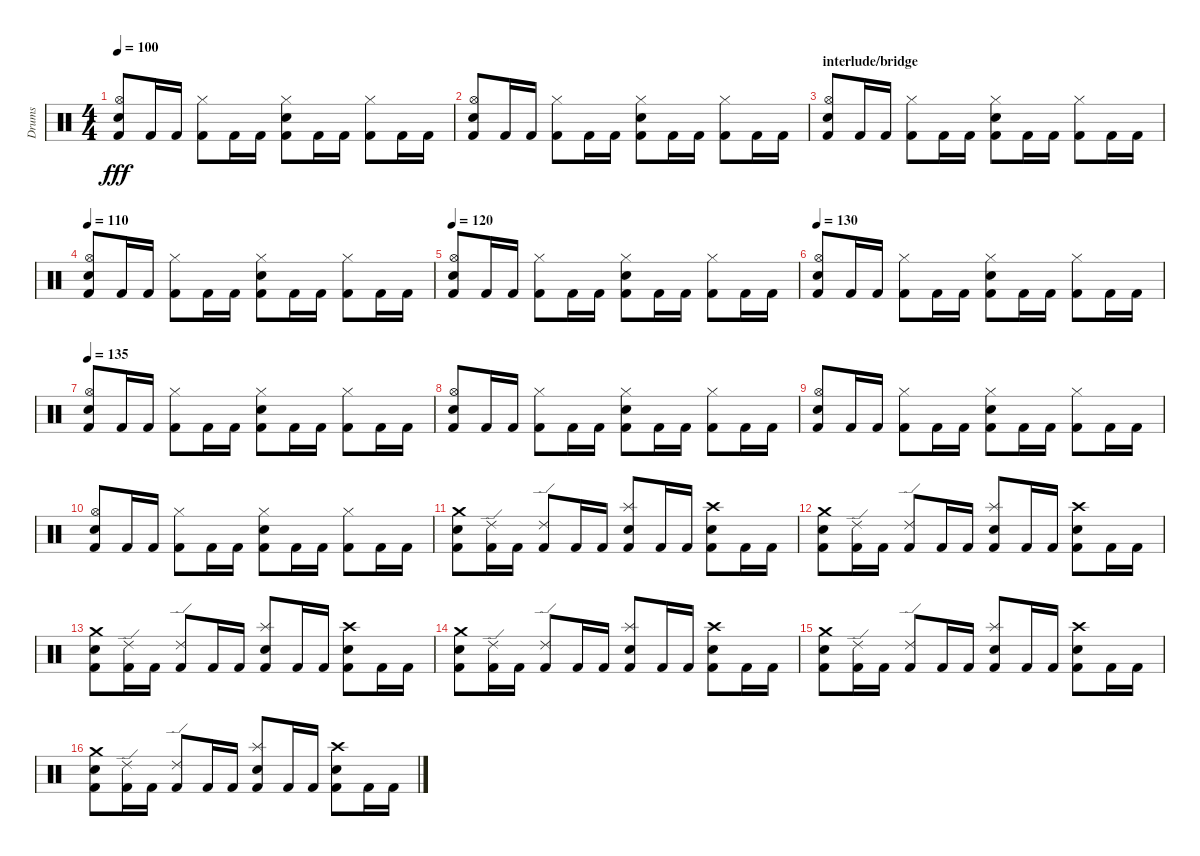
\track ("Drums" "Drums") {instrument percussion}
\staff {score}
\articulation defaults
\ts (4 4)
\tempo 100
\clef neutral
\ks c
("Electric Snare (hit)" "Hi-Hat (open)" "Kick (hit) 2").8{dy fff} "Kick (hit) 2".16 "Kick (hit) 2".16 ("Hi-Hat (closed)" "Kick (hit) 2").8 "Kick (hit) 2".16 "Kick (hit) 2".16 ("Hi-Hat (closed)" "Electric Snare (hit)" "Kick (hit) 2").8 "Kick (hit) 2".16 "Kick (hit) 2".16 ("Hi-Hat (closed)" "Kick (hit) 2").8 "Kick (hit) 2".16 "Kick (hit) 2".16 |
("Electric Snare (hit)" "Hi-Hat (open)" "Kick (hit) 2").8 "Kick (hit) 2".16 "Kick (hit) 2".16 ("Hi-Hat (closed)" "Kick (hit) 2").8 "Kick (hit) 2".16 "Kick (hit) 2".16 ("Hi-Hat (closed)" "Electric Snare (hit)" "Kick (hit) 2").8 "Kick (hit) 2".16 "Kick (hit) 2".16 ("Hi-Hat (closed)" "Kick (hit) 2").8 "Kick (hit) 2".16 "Kick (hit) 2".16 |
\section ("" "interlude/bridge")
("Electric Snare (hit)" "Hi-Hat (open)" "Kick (hit) 2").8 "Kick (hit) 2".16 "Kick (hit) 2".16 ("Hi-Hat (closed)" "Kick (hit) 2").8 "Kick (hit) 2".16 "Kick (hit) 2".16 ("Hi-Hat (closed)" "Electric Snare (hit)" "Kick (hit) 2").8 "Kick (hit) 2".16 "Kick (hit) 2".16 ("Hi-Hat (closed)" "Kick (hit) 2").8 "Kick (hit) 2".16 "Kick (hit) 2".16 |
\tempo 110
("Electric Snare (hit)" "Hi-Hat (open)" "Kick (hit) 2").8 "Kick (hit) 2".16 "Kick (hit) 2".16 ("Hi-Hat (closed)" "Kick (hit) 2").8 "Kick (hit) 2".16 "Kick (hit) 2".16 ("Hi-Hat (closed)" "Electric Snare (hit)" "Kick (hit) 2").8 "Kick (hit) 2".16 "Kick (hit) 2".16 ("Hi-Hat (closed)" "Kick (hit) 2").8 "Kick (hit) 2".16 "Kick (hit) 2".16 |
\tempo 120
("Electric Snare (hit)" "Hi-Hat (open)" "Kick (hit) 2").8 "Kick (hit) 2".16 "Kick (hit) 2".16 ("Hi-Hat (closed)" "Kick (hit) 2").8 "Kick (hit) 2".16 "Kick (hit) 2".16 ("Hi-Hat (closed)" "Electric Snare (hit)" "Kick (hit) 2").8 "Kick (hit) 2".16 "Kick (hit) 2".16 ("Hi-Hat (closed)" "Kick (hit) 2").8 "Kick (hit) 2".16 "Kick (hit) 2".16 |
\tempo 130
("Electric Snare (hit)" "Hi-Hat (open)" "Kick (hit) 2").8 "Kick (hit) 2".16 "Kick (hit) 2".16 ("Hi-Hat (closed)" "Kick (hit) 2").8 "Kick (hit) 2".16 "Kick (hit) 2".16 ("Hi-Hat (closed)" "Electric Snare (hit)" "Kick (hit) 2").8 "Kick (hit) 2".16 "Kick (hit) 2".16 ("Hi-Hat (closed)" "Kick (hit) 2").8 "Kick (hit) 2".16 "Kick (hit) 2".16 |
\tempo 135
("Electric Snare (hit)" "Hi-Hat (open)" "Kick (hit) 2").8 "Kick (hit) 2".16 "Kick (hit) 2".16 ("Hi-Hat (closed)" "Kick (hit) 2").8 "Kick (hit) 2".16 "Kick (hit) 2".16 ("Hi-Hat (closed)" "Electric Snare (hit)" "Kick (hit) 2").8 "Kick (hit) 2".16 "Kick (hit) 2".16 ("Hi-Hat (closed)" "Kick (hit) 2").8 "Kick (hit) 2".16 "Kick (hit) 2".16 |
("Electric Snare (hit)" "Hi-Hat (open)" "Kick (hit) 2").8 "Kick (hit) 2".16 "Kick (hit) 2".16 ("Hi-Hat (closed)" "Kick (hit) 2").8 "Kick (hit) 2".16 "Kick (hit) 2".16 ("Hi-Hat (closed)" "Electric Snare (hit)" "Kick (hit) 2").8 "Kick (hit) 2".16 "Kick (hit) 2".16 ("Hi-Hat (closed)" "Kick (hit) 2").8 "Kick (hit) 2".16 "Kick (hit) 2".16 |
("Electric Snare (hit)" "Hi-Hat (open)" "Kick (hit) 2").8 "Kick (hit) 2".16 "Kick (hit) 2".16 ("Hi-Hat (closed)" "Kick (hit) 2").8 "Kick (hit) 2".16 "Kick (hit) 2".16 ("Hi-Hat (closed)" "Electric Snare (hit)" "Kick (hit) 2").8 "Kick (hit) 2".16 "Kick (hit) 2".16 ("Hi-Hat (closed)" "Kick (hit) 2").8 "Kick (hit) 2".16 "Kick (hit) 2".16 |
("Electric Snare (hit)" "Hi-Hat (open)" "Kick (hit) 2").8 "Kick (hit) 2".16 "Kick (hit) 2".16 ("Hi-Hat (closed)" "Kick (hit) 2").8 "Kick (hit) 2".16 "Kick (hit) 2".16 ("Hi-Hat (closed)" "Electric Snare (hit)" "Kick (hit) 2").8 "Kick (hit) 2".16 "Kick (hit) 2".16 ("Hi-Hat (closed)" "Kick (hit) 2").8 "Kick (hit) 2".16 "Kick (hit) 2".16 |
("Crash medium (hit)" "Electric Snare (hit)" "Kick (hit) 2").8 ("Ride (edge) 2" "Kick (hit) 2").16 "Kick (hit) 2".16 ("Ride (edge) 2" "Kick (hit) 2").8 "Kick (hit) 2".16 "Kick (hit) 2".16 ("Splash (hit)" "Snare (hit) 2" "Kick (hit) 2").8 "Kick (hit) 2".16 "Kick (hit) 2".16 ("Crash high (hit)" "Snare (hit) 2" "Kick (hit) 2").8 "Kick (hit) 2".16 "Kick (hit) 2".16 |
("Crash medium (hit)" "Electric Snare (hit)" "Kick (hit) 2").8 ("Ride (edge) 2" "Kick (hit) 2").16 "Kick (hit) 2".16 ("Ride (edge) 2" "Kick (hit) 2").8 "Kick (hit) 2".16 "Kick (hit) 2".16 ("Splash (hit)" "Snare (hit) 2" "Kick (hit) 2").8 "Kick (hit) 2".16 "Kick (hit) 2".16 ("Crash high (hit)" "Snare (hit) 2" "Kick (hit) 2").8 "Kick (hit) 2".16 "Kick (hit) 2".16 |
("Crash medium (hit)" "Electric Snare (hit)" "Kick (hit) 2").8 ("Ride (edge) 2" "Kick (hit) 2").16 "Kick (hit) 2".16 ("Ride (edge) 2" "Kick (hit) 2").8 "Kick (hit) 2".16 "Kick (hit) 2".16 ("Splash (hit)" "Snare (hit) 2" "Kick (hit) 2").8 "Kick (hit) 2".16 "Kick (hit) 2".16 ("Crash high (hit)" "Snare (hit) 2" "Kick (hit) 2").8 "Kick (hit) 2".16 "Kick (hit) 2".16 |
("Crash medium (hit)" "Electric Snare (hit)" "Kick (hit) 2").8 ("Ride (edge) 2" "Kick (hit) 2").16 "Kick (hit) 2".16 ("Ride (edge) 2" "Kick (hit) 2").8 "Kick (hit) 2".16 "Kick (hit) 2".16 ("Splash (hit)" "Snare (hit) 2" "Kick (hit) 2").8 "Kick (hit) 2".16 "Kick (hit) 2".16 ("Crash high (hit)" "Snare (hit) 2" "Kick (hit) 2").8 "Kick (hit) 2".16 "Kick (hit) 2".16 |
("Crash medium (hit)" "Electric Snare (hit)" "Kick (hit) 2").8 ("Ride (edge) 2" "Kick (hit) 2").16 "Kick (hit) 2".16 ("Ride (edge) 2" "Kick (hit) 2").8 "Kick (hit) 2".16 "Kick (hit) 2".16 ("Splash (hit)" "Snare (hit) 2" "Kick (hit) 2").8 "Kick (hit) 2".16 "Kick (hit) 2".16 ("Crash high (hit)" "Snare (hit) 2" "Kick (hit) 2").8 "Kick (hit) 2".16 "Kick (hit) 2".16 |
("Crash medium (hit)" "Electric Snare (hit)" "Kick (hit) 2").8 ("Ride (edge) 2" "Kick (hit) 2").16 "Kick (hit) 2".16 ("Ride (edge) 2" "Kick (hit) 2").8 "Kick (hit) 2".16 "Kick (hit) 2".16 ("Splash (hit)" "Snare (hit) 2" "Kick (hit) 2").8 "Kick (hit) 2".16 "Kick (hit) 2".16 ("Crash high (hit)" "Snare (hit) 2" "Kick (hit) 2").8 "Kick (hit) 2".16 "Kick (hit) 2".16
